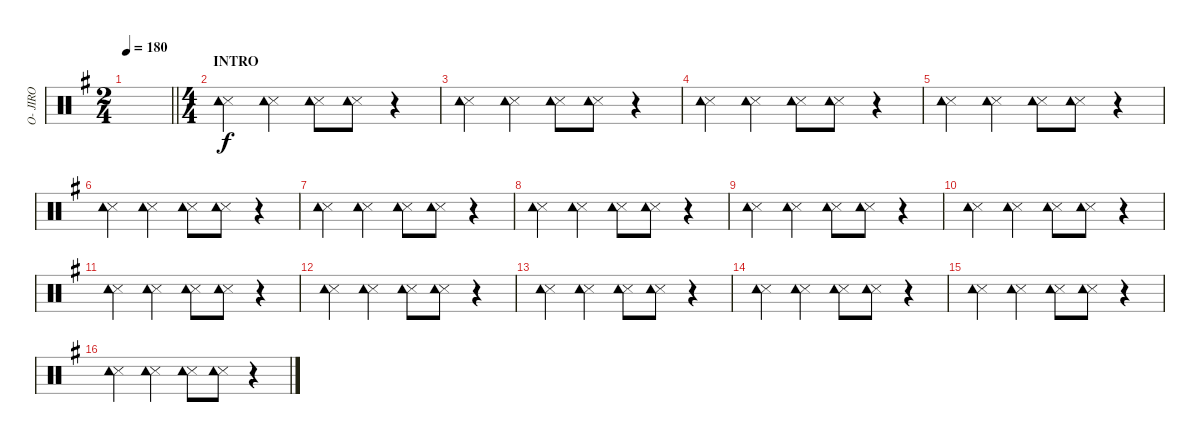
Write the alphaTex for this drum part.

\track ("O- JIRO" "O- JIRO") {instrument percussion}
\staff {score}
\articulation defaults
\ts (2 4)
\tempo 180
\clef neutral
\barLineRight lightlight
\ks g
|
\ts (4 4)
\section ("" "INTRO")
("Snare (side stick) 3" "Tambourine (hit)").4 ("Snare (side stick) 3" "Tambourine (hit)").4 ("Snare (side stick) 3" "Tambourine (hit)").8 ("Snare (side stick) 3" "Tambourine (hit)").8 r.4 |
("Snare (side stick) 3" "Tambourine (hit)").4 ("Snare (side stick) 3" "Tambourine (hit)").4 ("Snare (side stick) 3" "Tambourine (hit)").8 ("Snare (side stick) 3" "Tambourine (hit)").8 r.4 |
("Snare (side stick) 3" "Tambourine (hit)").4 ("Snare (side stick) 3" "Tambourine (hit)").4 ("Snare (side stick) 3" "Tambourine (hit)").8 ("Snare (side stick) 3" "Tambourine (hit)").8 r.4 |
("Snare (side stick) 3" "Tambourine (hit)").4 ("Snare (side stick) 3" "Tambourine (hit)").4 ("Snare (side stick) 3" "Tambourine (hit)").8 ("Snare (side stick) 3" "Tambourine (hit)").8 r.4 |
("Snare (side stick) 3" "Tambourine (hit)").4 ("Snare (side stick) 3" "Tambourine (hit)").4 ("Snare (side stick) 3" "Tambourine (hit)").8 ("Snare (side stick) 3" "Tambourine (hit)").8 r.4 |
("Snare (side stick) 3" "Tambourine (hit)").4 ("Snare (side stick) 3" "Tambourine (hit)").4 ("Snare (side stick) 3" "Tambourine (hit)").8 ("Snare (side stick) 3" "Tambourine (hit)").8 r.4 |
("Snare (side stick) 3" "Tambourine (hit)").4 ("Snare (side stick) 3" "Tambourine (hit)").4 ("Snare (side stick) 3" "Tambourine (hit)").8 ("Snare (side stick) 3" "Tambourine (hit)").8 r.4 |
("Snare (side stick) 3" "Tambourine (hit)").4 ("Snare (side stick) 3" "Tambourine (hit)").4 ("Snare (side stick) 3" "Tambourine (hit)").8 ("Snare (side stick) 3" "Tambourine (hit)").8 r.4 |
("Snare (side stick) 3" "Tambourine (hit)").4 ("Snare (side stick) 3" "Tambourine (hit)").4 ("Snare (side stick) 3" "Tambourine (hit)").8 ("Snare (side stick) 3" "Tambourine (hit)").8 r.4 |
("Snare (side stick) 3" "Tambourine (hit)").4 ("Snare (side stick) 3" "Tambourine (hit)").4 ("Snare (side stick) 3" "Tambourine (hit)").8 ("Snare (side stick) 3" "Tambourine (hit)").8 r.4 |
("Snare (side stick) 3" "Tambourine (hit)").4 ("Snare (side stick) 3" "Tambourine (hit)").4 ("Snare (side stick) 3" "Tambourine (hit)").8 ("Snare (side stick) 3" "Tambourine (hit)").8 r.4 |
("Snare (side stick) 3" "Tambourine (hit)").4 ("Snare (side stick) 3" "Tambourine (hit)").4 ("Snare (side stick) 3" "Tambourine (hit)").8 ("Snare (side stick) 3" "Tambourine (hit)").8 r.4 |
("Snare (side stick) 3" "Tambourine (hit)").4 ("Snare (side stick) 3" "Tambourine (hit)").4 ("Snare (side stick) 3" "Tambourine (hit)").8 ("Snare (side stick) 3" "Tambourine (hit)").8 r.4 |
("Snare (side stick) 3" "Tambourine (hit)").4 ("Snare (side stick) 3" "Tambourine (hit)").4 ("Snare (side stick) 3" "Tambourine (hit)").8 ("Snare (side stick) 3" "Tambourine (hit)").8 r.4 |
("Snare (side stick) 3" "Tambourine (hit)").4 ("Snare (side stick) 3" "Tambourine (hit)").4 ("Snare (side stick) 3" "Tambourine (hit)").8 ("Snare (side stick) 3" "Tambourine (hit)").8 r.4
